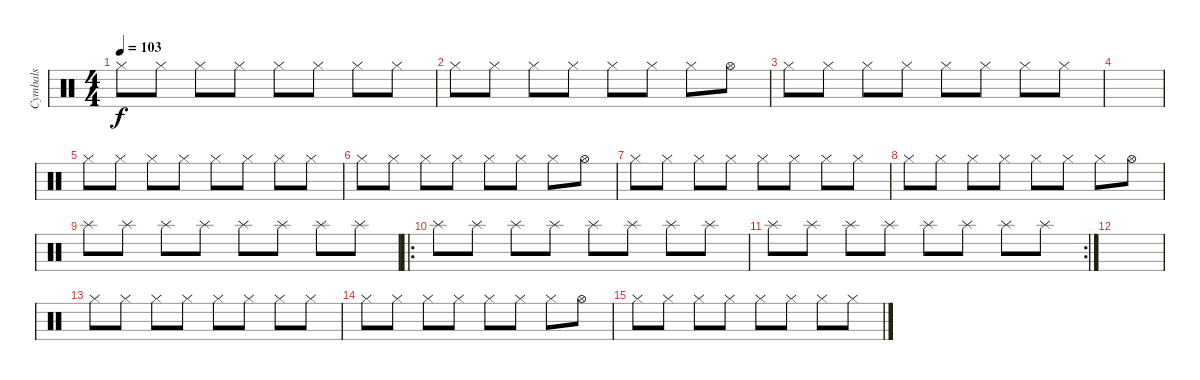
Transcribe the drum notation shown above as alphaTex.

\track ("Cymbals" "Cymbals") {instrument percussion}
\staff {score}
\articulation defaults
\ts (4 4)
\tempo 103
\clef neutral
\ks c "Hi-Hat (closed)".8{dy f} "Hi-Hat (closed)".8 "Hi-Hat (closed)".8 "Hi-Hat (closed)".8 "Hi-Hat (closed)".8 "Hi-Hat (closed)".8 "Hi-Hat (closed)".8 "Hi-Hat (closed)".8
|
"Hi-Hat (closed)".8 "Hi-Hat (closed)".8 "Hi-Hat (closed)".8 "Hi-Hat (closed)".8 "Hi-Hat (closed)".8 "Hi-Hat (closed)".8 "Hi-Hat (closed)".8 "Hi-Hat (open)".8 |
"Hi-Hat (closed)".8 "Hi-Hat (closed)".8 "Hi-Hat (closed)".8 "Hi-Hat (closed)".8 "Hi-Hat (closed)".8 "Hi-Hat (closed)".8 "Hi-Hat (closed)".8 "Hi-Hat (closed)".8 |
|
"Hi-Hat (closed)".8 "Hi-Hat (closed)".8 "Hi-Hat (closed)".8 "Hi-Hat (closed)".8 "Hi-Hat (closed)".8 "Hi-Hat (closed)".8 "Hi-Hat (closed)".8 "Hi-Hat (closed)".8 |
"Hi-Hat (closed)".8 "Hi-Hat (closed)".8 "Hi-Hat (closed)".8 "Hi-Hat (closed)".8 "Hi-Hat (closed)".8 "Hi-Hat (closed)".8 "Hi-Hat (closed)".8 "Hi-Hat (open)".8 |
"Hi-Hat (closed)".8 "Hi-Hat (closed)".8 "Hi-Hat (closed)".8 "Hi-Hat (closed)".8 "Hi-Hat (closed)".8 "Hi-Hat (closed)".8 "Hi-Hat (closed)".8 "Hi-Hat (closed)".8 |
"Hi-Hat (closed)".8 "Hi-Hat (closed)".8 "Hi-Hat (closed)".8 "Hi-Hat (closed)".8 "Hi-Hat (closed)".8 "Hi-Hat (closed)".8 "Hi-Hat (closed)".8 "Hi-Hat (open)".8 |
"Splash (hit)".8 "Splash (hit)".8 "Splash (hit)".8 "Splash (hit)".8 "Splash (hit)".8 "Splash (hit)".8 "Splash (hit)".8 "Splash (hit)".8 |
\ro "Splash (hit)".8 "Splash (hit)".8 "Splash (hit)".8 "Splash (hit)".8 "Splash (hit)".8 "Splash (hit)".8 "Splash (hit)".8 "Splash (hit)".8
|
\rc 2 "Splash (hit)".8 "Splash (hit)".8 "Splash (hit)".8 "Splash (hit)".8 "Splash (hit)".8 "Splash (hit)".8 "Splash (hit)".8 "Splash (hit)".8
|
|
"Hi-Hat (closed)".8 "Hi-Hat (closed)".8 "Hi-Hat (closed)".8 "Hi-Hat (closed)".8 "Hi-Hat (closed)".8 "Hi-Hat (closed)".8 "Hi-Hat (closed)".8 "Hi-Hat (closed)".8 |
"Hi-Hat (closed)".8 "Hi-Hat (closed)".8 "Hi-Hat (closed)".8 "Hi-Hat (closed)".8 "Hi-Hat (closed)".8 "Hi-Hat (closed)".8 "Hi-Hat (closed)".8 "Hi-Hat (open)".8 |
"Hi-Hat (closed)".8 "Hi-Hat (closed)".8 "Hi-Hat (closed)".8 "Hi-Hat (closed)".8 "Hi-Hat (closed)".8 "Hi-Hat (closed)".8 "Hi-Hat (closed)".8 "Hi-Hat (closed)".8
